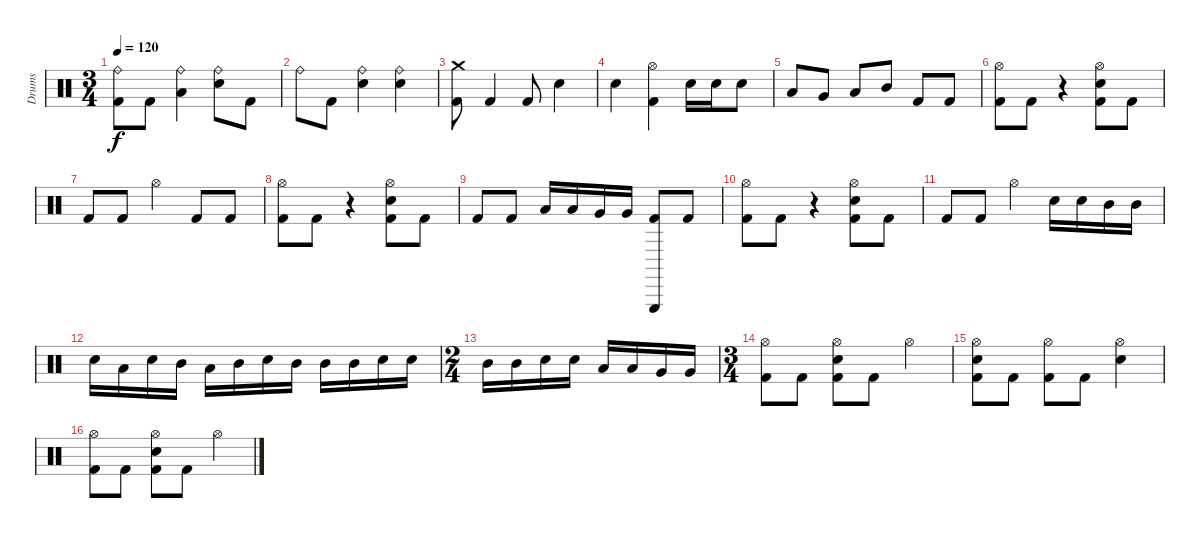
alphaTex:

\track ("Drums" "Drums") {instrument percussion}
\staff {score}
\articulation defaults
\ts (3 4)
\tempo 120
\clef neutral
\ks c
("Ride (bell)" "Kick (hit) 2").8{dy f} "Kick (hit) 2".8 ("Ride (bell)" "Low Tom (hit)").4 ("Electric Snare (hit)" "Ride (bell)").8 "Kick (hit) 2".8 |
"Ride (bell)".8 "Kick (hit) 2".8 ("Electric Snare (hit)" "Ride (bell)").4 ("Electric Snare (hit)" "Ride (bell)").4 |
("Crash medium (hit)" "Kick (hit) 2").8 "Kick (hit) 2".4 "Kick (hit) 2".8 "Electric Snare (hit)".4 |
"Electric Snare (hit)".4 ("Hi-Hat (open)" "Kick (hit) 2").4 "Electric Snare (hit)".16 "Electric Snare (hit)".16 "Electric Snare (hit)".8 |
"Low Floor Tom (hit)".8 "Very Low Tom (hit)".8 "Low Tom (hit)".8 "Mid Tom (hit)".8 "Kick (hit) 2".8 "Kick (hit) 2".8 |
("Hi-Hat (open)" "Kick (hit) 2").8 "Kick (hit) 2".8 r.4 ("Electric Snare (hit)" "Hi-Hat (open)" "Kick (hit) 2").8 "Kick (hit) 2".8 |
"Kick (hit) 2".8 "Kick (hit) 2".8 "Hi-Hat (open)".4 "Kick (hit) 2".8 "Kick (hit) 2".8 |
("Hi-Hat (open)" "Kick (hit) 2").8 "Kick (hit) 2".8 r.4 ("Electric Snare (hit)" "Hi-Hat (open)" "Kick (hit) 2").8 "Kick (hit) 2".8 |
"Kick (hit) 2".8 "Kick (hit) 2".8 "Low Tom (hit)".16 "Low Tom (hit)".16 "Very Low Tom (hit)".16 "Very Low Tom (hit)".16 ("Triangle (hit)" "Kick (hit) 2").8 "Kick (hit) 2".8 |
("Hi-Hat (open)" "Kick (hit) 2").8 "Kick (hit) 2".8 r.4 ("Electric Snare (hit)" "Hi-Hat (open)" "Kick (hit) 2").8 "Kick (hit) 2".8 |
"Kick (hit) 2".8 "Kick (hit) 2".8 "Hi-Hat (open)".4 "Electric Snare (hit)".16 "Electric Snare (hit)".16 "Mid Tom (hit)".16 "Mid Tom (hit)".16 |
"Electric Snare (hit)".16 "Low Tom (hit)".16 "Electric Snare (hit)".16 "Mid Tom (hit)".16 "Low Tom (hit)".16 "Mid Tom (hit)".16 "Electric Snare (hit)".16 "Mid Tom (hit)".16 "Mid Tom (hit)".16 "Mid Tom (hit)".16 "Electric Snare (hit)".16 "Electric Snare (hit)".16 |
\ts (2 4)
"Mid Tom (hit)".16 "Mid Tom (hit)".16 "Electric Snare (hit)".16 "Electric Snare (hit)".16 "Low Tom (hit)".16 "Low Tom (hit)".16 "Very Low Tom (hit)".16 "Very Low Tom (hit)".16 |
\ts (3 4)
("Hi-Hat (open)" "Kick (hit) 2").8 "Kick (hit) 2".8 ("Electric Snare (hit)" "Hi-Hat (open)" "Kick (hit) 2").8 "Kick (hit) 2".8 "Hi-Hat (open)".4 |
("Electric Snare (hit)" "Hi-Hat (open)" "Kick (hit) 2").8 "Kick (hit) 2".8 ("Hi-Hat (open)" "Kick (hit) 2").8 "Kick (hit) 2".8 ("Electric Snare (hit)" "Hi-Hat (open)").4 |
("Hi-Hat (open)" "Kick (hit) 2").8 "Kick (hit) 2".8 ("Electric Snare (hit)" "Hi-Hat (open)" "Kick (hit) 2").8 "Kick (hit) 2".8 "Hi-Hat (open)".4
